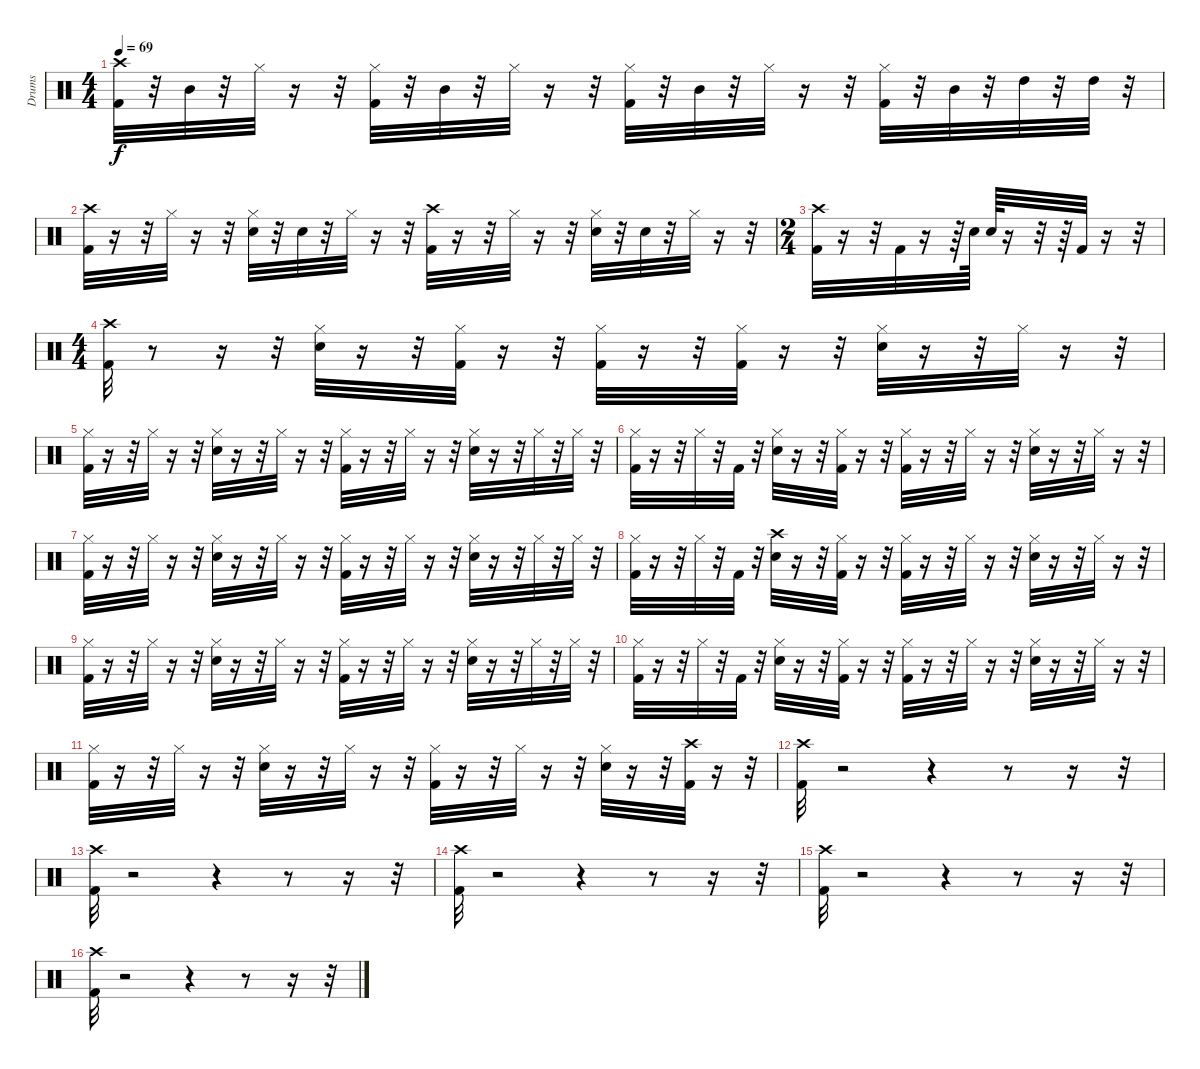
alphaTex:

\track ("Drums" "Drums") {instrument percussion}
\staff {score}
\articulation defaults
\ts (4 4)
\tempo 69
\clef neutral
\ks c
("Kick (hit) 2" "Crash high (hit)").32{dy f} r.32 "Mid Tom (hit)".32 r.32 "Hi-Hat (closed)".32 r.16 r.32 ("Hi-Hat (closed)" "Kick (hit) 2").32 r.32 "Mid Tom (hit)".32 r.32 "Hi-Hat (closed)".32 r.16 r.32 ("Hi-Hat (closed)" "Kick (hit) 2").32 r.32 "Mid Tom (hit)".32 r.32 "Hi-Hat (closed)".32 r.16 r.32 ("Hi-Hat (closed)" "Kick (hit) 2").32 r.32 "Mid Tom (hit)".32 r.32 "High Tom (hit)".32 r.32 "High Tom (hit)".32 r.32 |
("Kick (hit) 2" "Crash high (hit)").32 r.16 r.32 "Hi-Hat (closed)".32 r.16 r.32 ("Snare (hit) 2" "Hi-Hat (closed)").32 r.32 "Snare (hit) 2".32 r.32 "Hi-Hat (closed)".32 r.16 r.32 ("Crash high (hit)" "Kick (hit) 2").32 r.16 r.32 "Hi-Hat (closed)".32 r.16 r.32 ("Snare (hit) 2" "Hi-Hat (closed)").32 r.32 "Snare (hit) 2".32 r.32 "Hi-Hat (closed)".32 r.16 r.32 |
\ts (2 4)
("Kick (hit) 2" "Crash high (hit)").32 r.16 r.32 "Kick (hit) 2".32 r.16 r.64 "Snare (hit) 2".64 "Snare (hit) 2".64 r.16 r.32 r.64 "Kick (hit) 2".32 r.16 r.32 |
\ts (4 4)
("Kick (hit) 2" "Crash high (hit)").32 r.8 r.16 r.32 ("Hi-Hat (closed)" "Snare (hit) 2").32 r.16 r.32 ("Hi-Hat (closed)" "Kick (hit) 2").32 r.16 r.32 ("Hi-Hat (closed)" "Kick (hit) 2").32 r.16 r.32 ("Hi-Hat (closed)" "Kick (hit) 2").32 r.16 r.32 ("Hi-Hat (closed)" "Snare (hit) 2").32 r.16 r.32 "Hi-Hat (closed)".32 r.16 r.32 |
("Hi-Hat (closed)" "Kick (hit) 2").32 r.16 r.32 "Hi-Hat (closed)".32 r.16 r.32 ("Snare (hit) 2" "Hi-Hat (closed)").32 r.16 r.32 "Hi-Hat (closed)".32 r.16 r.32 ("Hi-Hat (closed)" "Kick (hit) 2").32 r.16 r.32 "Hi-Hat (closed)".32 r.16 r.32 ("Hi-Hat (closed)" "Snare (hit) 2").32 r.16 r.32 "Hi-Hat (closed)".32 r.32 "Hi-Hat (closed)".32 r.32 |
("Hi-Hat (closed)" "Kick (hit) 2").32 r.16 r.32 "Hi-Hat (closed)".32 r.32 "Kick (hit) 2".32 r.32 ("Snare (hit) 2" "Hi-Hat (closed)").32 r.16 r.32 ("Kick (hit) 2" "Hi-Hat (closed)").32 r.16 r.32 ("Hi-Hat (closed)" "Kick (hit) 2").32 r.16 r.32 "Hi-Hat (closed)".32 r.16 r.32 ("Snare (hit) 2" "Hi-Hat (closed)").32 r.16 r.32 "Hi-Hat (closed)".32 r.16 r.32 |
("Hi-Hat (closed)" "Kick (hit) 2").32 r.16 r.32 "Hi-Hat (closed)".32 r.16 r.32 ("Snare (hit) 2" "Hi-Hat (closed)").32 r.16 r.32 "Hi-Hat (closed)".32 r.16 r.32 ("Kick (hit) 2" "Hi-Hat (closed)").32 r.16 r.32 "Hi-Hat (closed)".32 r.16 r.32 ("Hi-Hat (closed)" "Snare (hit) 2").32 r.16 r.32 "Hi-Hat (closed)".32 r.32 "Hi-Hat (closed)".32 r.32 |
("Hi-Hat (closed)" "Kick (hit) 2").32 r.16 r.32 "Hi-Hat (closed)".32 r.32 "Kick (hit) 2".32 r.32 ("Crash high (hit)" "Snare (hit) 2").32 r.16 r.32 ("Hi-Hat (closed)" "Kick (hit) 2").32 r.16 r.32 ("Hi-Hat (closed)" "Kick (hit) 2").32 r.16 r.32 "Hi-Hat (closed)".32 r.16 r.32 ("Snare (hit) 2" "Hi-Hat (closed)").32 r.16 r.32 "Hi-Hat (closed)".32 r.16 r.32 |
("Hi-Hat (closed)" "Kick (hit) 2").32 r.16 r.32 "Hi-Hat (closed)".32 r.16 r.32 ("Snare (hit) 2" "Hi-Hat (closed)").32 r.16 r.32 "Hi-Hat (closed)".32 r.16 r.32 ("Kick (hit) 2" "Hi-Hat (closed)").32 r.16 r.32 "Hi-Hat (closed)".32 r.16 r.32 ("Hi-Hat (closed)" "Snare (hit) 2").32 r.16 r.32 "Hi-Hat (closed)".32 r.32 "Hi-Hat (closed)".32 r.32 |
("Hi-Hat (closed)" "Kick (hit) 2").32 r.16 r.32 "Hi-Hat (closed)".32 r.32 "Kick (hit) 2".32 r.32 ("Snare (hit) 2" "Hi-Hat (closed)").32 r.16 r.32 ("Kick (hit) 2" "Hi-Hat (closed)").32 r.16 r.32 ("Hi-Hat (closed)" "Kick (hit) 2").32 r.16 r.32 "Hi-Hat (closed)".32 r.16 r.32 ("Snare (hit) 2" "Hi-Hat (closed)").32 r.16 r.32 "Hi-Hat (closed)".32 r.16 r.32 |
("Hi-Hat (closed)" "Kick (hit) 2").32 r.16 r.32 "Hi-Hat (closed)".32 r.16 r.32 ("Snare (hit) 2" "Hi-Hat (closed)").32 r.16 r.32 "Hi-Hat (closed)".32 r.16 r.32 ("Hi-Hat (closed)" "Kick (hit) 2").32 r.16 r.32 "Hi-Hat (closed)".32 r.16 r.32 ("Snare (hit) 2" "Hi-Hat (closed)").32 r.16 r.32 ("Crash high (hit)" "Kick (hit) 2").32 r.16 r.32 |
("Kick (hit) 2" "Crash high (hit)").32 r.2 r.4 r.8 r.16 r.32 |
("Kick (hit) 2" "Crash high (hit)").32 r.2 r.4 r.8 r.16 r.32 |
("Kick (hit) 2" "Crash high (hit)").32 r.2 r.4 r.8 r.16 r.32 |
("Kick (hit) 2" "Crash high (hit)").32 r.2 r.4 r.8 r.16 r.32 |
("Kick (hit) 2" "Crash high (hit)").32 r.2 r.4 r.8 r.16 r.32
